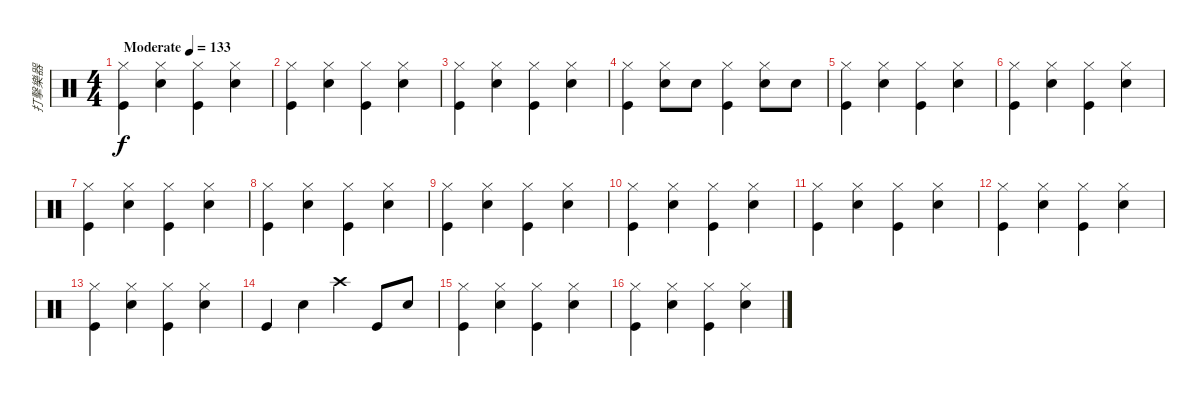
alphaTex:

\track ("打擊樂器" "打擊樂器") {instrument percussion}
\staff {score}
\articulation defaults
\ts (4 4)
\tempo (133 "Moderate")
\clef neutral
\ks c
("Hi-Hat (closed)" "Kick (hit)").4{dy f} ("Hi-Hat (closed)" "Snare (hit) 2").4 ("Hi-Hat (closed)" "Kick (hit)").4 ("Hi-Hat (closed)" "Snare (hit) 2").4 |
("Hi-Hat (closed)" "Kick (hit)").4 ("Hi-Hat (closed)" "Snare (hit) 2").4 ("Hi-Hat (closed)" "Kick (hit)").4 ("Hi-Hat (closed)" "Snare (hit) 2").4 |
("Hi-Hat (closed)" "Kick (hit)").4 ("Hi-Hat (closed)" "Snare (hit) 2").4 ("Hi-Hat (closed)" "Kick (hit)").4 ("Hi-Hat (closed)" "Snare (hit) 2").4 |
("Hi-Hat (closed)" "Kick (hit)").4 ("Hi-Hat (closed)" "Snare (hit) 2").8 "Snare (hit) 2".8 ("Hi-Hat (closed)" "Kick (hit)").4 ("Hi-Hat (closed)" "Snare (hit) 2").8 "Snare (hit) 2".8 |
("Hi-Hat (closed)" "Kick (hit)").4 ("Hi-Hat (closed)" "Snare (hit) 2").4 ("Hi-Hat (closed)" "Kick (hit)").4 ("Hi-Hat (closed)" "Snare (hit) 2").4 |
("Hi-Hat (closed)" "Kick (hit)").4 ("Hi-Hat (closed)" "Snare (hit) 2").4 ("Hi-Hat (closed)" "Kick (hit)").4 ("Hi-Hat (closed)" "Snare (hit) 2").4 |
("Hi-Hat (closed)" "Kick (hit)").4 ("Hi-Hat (closed)" "Snare (hit) 2").4 ("Hi-Hat (closed)" "Kick (hit)").4 ("Hi-Hat (closed)" "Snare (hit) 2").4 |
("Hi-Hat (closed)" "Kick (hit)").4 ("Hi-Hat (closed)" "Snare (hit) 2").4 ("Hi-Hat (closed)" "Kick (hit)").4 ("Hi-Hat (closed)" "Snare (hit) 2").4 |
("Hi-Hat (closed)" "Kick (hit)").4 ("Hi-Hat (closed)" "Snare (hit) 2").4 ("Hi-Hat (closed)" "Kick (hit)").4 ("Hi-Hat (closed)" "Snare (hit) 2").4 |
("Hi-Hat (closed)" "Kick (hit)").4 ("Hi-Hat (closed)" "Snare (hit) 2").4 ("Hi-Hat (closed)" "Kick (hit)").4 ("Hi-Hat (closed)" "Snare (hit) 2").4 |
("Hi-Hat (closed)" "Kick (hit)").4 ("Hi-Hat (closed)" "Snare (hit) 2").4 ("Hi-Hat (closed)" "Kick (hit)").4 ("Hi-Hat (closed)" "Snare (hit) 2").4 |
("Hi-Hat (closed)" "Kick (hit)").4 ("Hi-Hat (closed)" "Snare (hit) 2").4 ("Hi-Hat (closed)" "Kick (hit)").4 ("Hi-Hat (closed)" "Snare (hit) 2").4 |
("Hi-Hat (closed)" "Kick (hit)").4 ("Hi-Hat (closed)" "Snare (hit) 2").4 ("Hi-Hat (closed)" "Kick (hit)").4 ("Hi-Hat (closed)" "Snare (hit) 2").4 |
"Kick (hit)".4 "Snare (hit) 2".4 "Crash high (hit)".4 "Kick (hit)".8 "Snare (hit) 2".8 |
("Hi-Hat (closed)" "Kick (hit)").4 ("Hi-Hat (closed)" "Snare (hit) 2").4 ("Hi-Hat (closed)" "Kick (hit)").4 ("Hi-Hat (closed)" "Snare (hit) 2").4 |
("Hi-Hat (closed)" "Kick (hit)").4 ("Hi-Hat (closed)" "Snare (hit) 2").4 ("Hi-Hat (closed)" "Kick (hit)").4 ("Hi-Hat (closed)" "Snare (hit) 2").4
